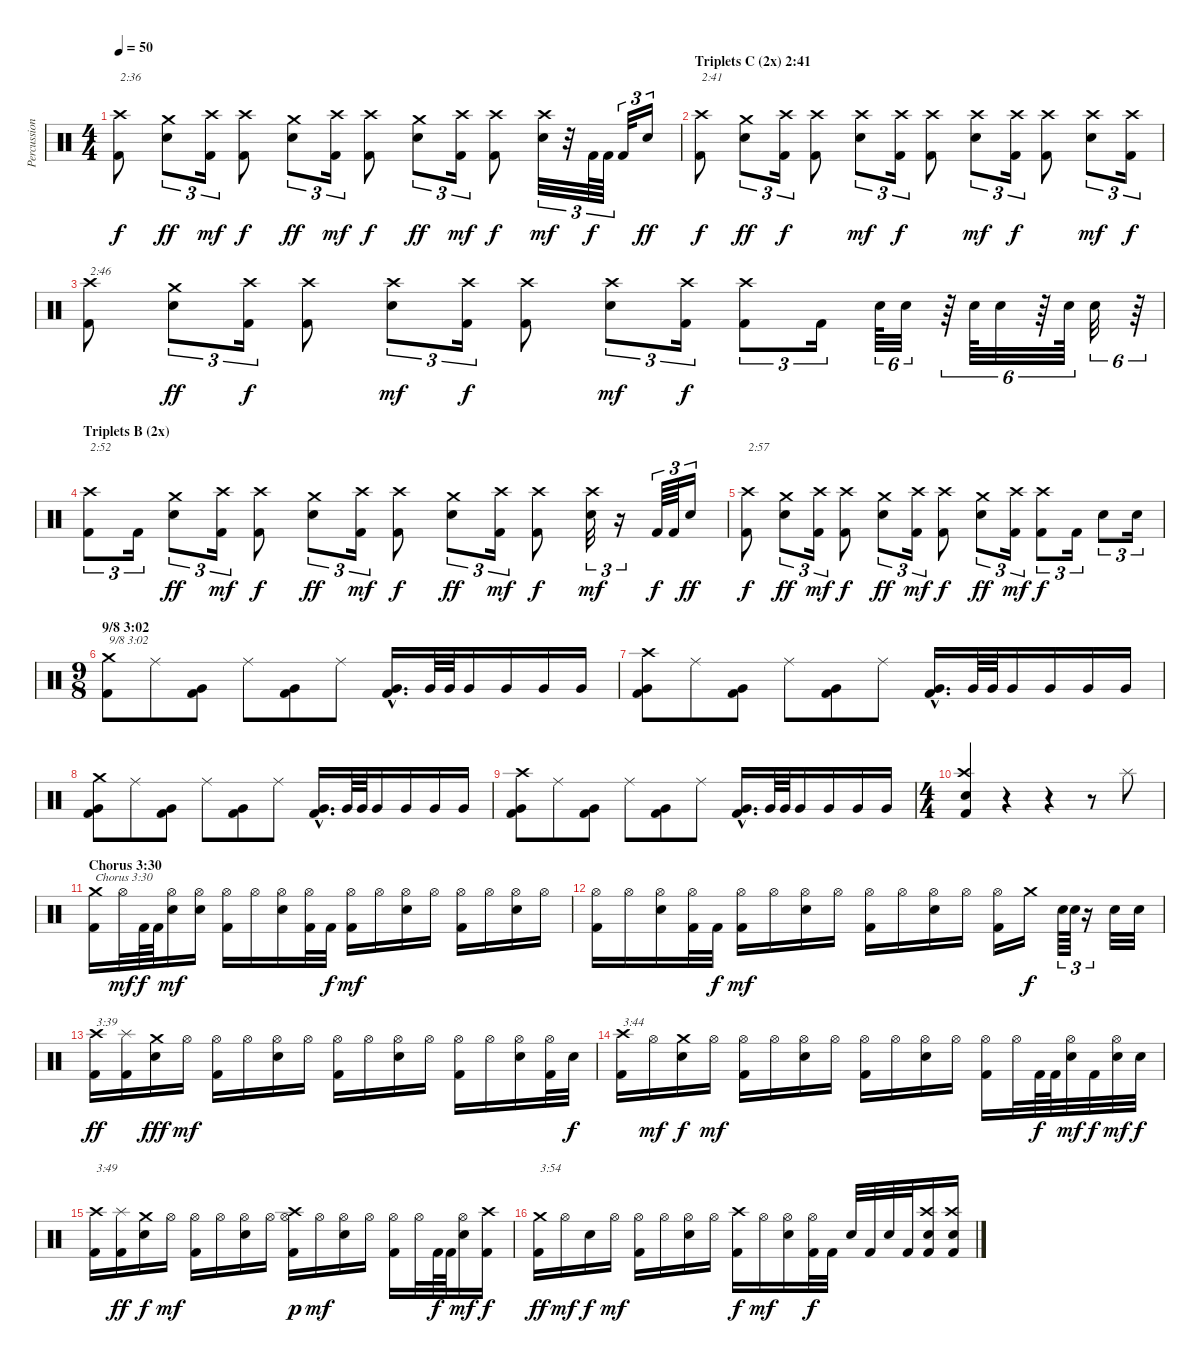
\track ("Percussion" "Percussion") {instrument percussion}
\staff {score}
\articulation defaults
\ts (4 4)
\tempo 50
\clef neutral
\ks c
("Kick (hit) 2" "Crash high (hit)").8{txt "2:36" dy f} ("Electric Snare (hit)" "Crash medium (hit)").8{tu (3 2) dy ff} ("Kick (hit) 2" "Crash high (hit)").16{tu (3 2) dy mf} ("Kick (hit) 2" "Crash high (hit)").8{dy f} ("Electric Snare (hit)" "Crash medium (hit)").8{tu (3 2) dy ff} ("Kick (hit) 2" "Crash high (hit)").16{tu (3 2) dy mf} ("Kick (hit) 2" "Crash high (hit)").8{dy f} ("Electric Snare (hit)" "Crash medium (hit)").8{tu (3 2) dy ff} ("Kick (hit) 2" "Crash high (hit)").16{tu (3 2) dy mf} ("Kick (hit) 2" "Crash high (hit)").8{dy f} ("Electric Snare (hit)" "Crash high (hit)").32{tu (3 2) dy mf} r.32{tu (3 2)} "Kick (hit) 2".64{tu (3 2) dy f} "Kick (hit) 2".64{tu (3 2)} "Kick (hit) 2".32{tu (3 2)} "Electric Snare (hit)".16{tu (3 2) dy ff} |
\section ("" "Triplets C (2x) 2:41")
("Kick (hit) 2" "Crash high (hit)").8{txt "2:41" dy f} ("Electric Snare (hit)" "Crash medium (hit)").8{tu (3 2) dy ff} ("Kick (hit) 2" "Crash high (hit)").16{tu (3 2) dy f} ("Kick (hit) 2" "Crash high (hit)").8 ("Electric Snare (hit)" "Crash high (hit)").8{tu (3 2) dy mf} ("Kick (hit) 2" "Crash high (hit)").16{tu (3 2) dy f} ("Kick (hit) 2" "Crash high (hit)").8 ("Electric Snare (hit)" "Crash high (hit)").8{tu (3 2) dy mf} ("Kick (hit) 2" "Crash high (hit)").16{tu (3 2) dy f} ("Kick (hit) 2" "Crash high (hit)").8 ("Electric Snare (hit)" "Crash high (hit)").8{tu (3 2) dy mf} ("Kick (hit) 2" "Crash high (hit)").16{tu (3 2) dy f} |
("Kick (hit) 2" "Crash high (hit)").8{txt "2:46"} ("Electric Snare (hit)" "Crash medium (hit)").8{tu (3 2) dy ff} ("Kick (hit) 2" "Crash high (hit)").16{tu (3 2) dy f} ("Kick (hit) 2" "Crash high (hit)").8 ("Electric Snare (hit)" "Crash high (hit)").8{tu (3 2) dy mf} ("Kick (hit) 2" "Crash high (hit)").16{tu (3 2) dy f} ("Kick (hit) 2" "Crash high (hit)").8 ("Electric Snare (hit)" "Crash high (hit)").8{tu (3 2) dy mf} ("Kick (hit) 2" "Crash high (hit)").16{tu (3 2) dy f} ("Kick (hit) 2" "Crash high (hit)").8{tu (3 2)} "Kick (hit) 2".16{tu (3 2)} "Electric Snare (hit)".64{tu (6 4)} "Electric Snare (hit)".32{tu (6 4)} r.64{tu (6 4)} "Electric Snare (hit)".64{tu (6 4)} "Electric Snare (hit)".32{tu (6 4)} r.64{tu (6 4)} "Electric Snare (hit)".64{tu (6 4)} "Electric Snare (hit)".32{tu (6 4)} r.64{tu (6 4)} |
\section ("" "Triplets B (2x)")
("Kick (hit) 2" "Crash high (hit)").8{tu (3 2) txt "2:52"} "Kick (hit) 2".16{tu (3 2)} ("Electric Snare (hit)" "Crash medium (hit)").8{tu (3 2) dy ff} ("Kick (hit) 2" "Crash high (hit)").16{tu (3 2) dy mf} ("Kick (hit) 2" "Crash high (hit)").8{dy f} ("Electric Snare (hit)" "Crash medium (hit)").8{tu (3 2) dy ff} ("Kick (hit) 2" "Crash high (hit)").16{tu (3 2) dy mf} ("Kick (hit) 2" "Crash high (hit)").8{dy f} ("Electric Snare (hit)" "Crash medium (hit)").8{tu (3 2) dy ff} ("Kick (hit) 2" "Crash high (hit)").16{tu (3 2) dy mf} ("Kick (hit) 2" "Crash high (hit)").8{dy f} ("Electric Snare (hit)" "Crash high (hit)").32{tu (3 2) dy mf} r.16{tu (3 2)} "Kick (hit) 2".64{tu (3 2) dy f} "Kick (hit) 2".64{tu (3 2)} "Electric Snare (hit)".16{tu (3 2) dy ff} |
("Kick (hit) 2" "Crash high (hit)").8{txt "2:57" dy f} ("Electric Snare (hit)" "Crash medium (hit)").8{tu (3 2) dy ff} ("Kick (hit) 2" "Crash high (hit)").16{tu (3 2) dy mf} ("Kick (hit) 2" "Crash high (hit)").8{dy f} ("Electric Snare (hit)" "Crash medium (hit)").8{tu (3 2) dy ff} ("Kick (hit) 2" "Crash high (hit)").16{tu (3 2) dy mf} ("Kick (hit) 2" "Crash high (hit)").8{dy f} ("Electric Snare (hit)" "Crash medium (hit)").8{tu (3 2) dy ff} ("Kick (hit) 2" "Crash high (hit)").16{tu (3 2) dy mf} ("Kick (hit) 2" "Crash high (hit)").8{tu (3 2) dy f} "Kick (hit) 2".16{tu (3 2)} "Electric Snare (hit)".8{tu (3 2)} "Electric Snare (hit)".16{tu (3 2)} |
\ts (9 8)
\section ("" "9/8 3:02")
("Kick (hit) 2" "Crash medium (hit)").8{txt "9/8 3:02"} "Ride (middle)".8 ("Kick (hit) 2" "Very Low Tom (hit)").8 "Ride (middle)".8 ("Kick (hit) 2" "Very Low Tom (hit)").8 "Ride (middle)".8 ("Kick (hit) 2"{hac} "Very Low Tom (hit)"{hac}).16{d} "Very Low Tom (hit)".64 "Very Low Tom (hit)".64 "Very Low Tom (hit)".16 "Very Low Tom (hit)".16 "Very Low Tom (hit)".16 "Very Low Tom (hit)".16 |
("Kick (hit) 2" "Very Low Tom (hit)" "Crash high (hit)").8 "Ride (middle)".8 ("Kick (hit) 2" "Very Low Tom (hit)").8 "Ride (middle)".8 ("Kick (hit) 2" "Very Low Tom (hit)").8 "Ride (middle)".8 ("Kick (hit) 2"{hac} "Very Low Tom (hit)"{hac}).16{d} "Very Low Tom (hit)".64 "Very Low Tom (hit)".64 "Very Low Tom (hit)".16 "Very Low Tom (hit)".16 "Very Low Tom (hit)".16 "Very Low Tom (hit)".16 |
("Kick (hit) 2" "Very Low Tom (hit)" "Crash medium (hit)").8 "Ride (middle)".8 ("Kick (hit) 2" "Very Low Tom (hit)").8 "Ride (middle)".8 ("Kick (hit) 2" "Very Low Tom (hit)").8 "Ride (middle)".8 ("Kick (hit) 2"{hac} "Very Low Tom (hit)"{hac}).16{d} "Very Low Tom (hit)".64 "Very Low Tom (hit)".64 "Very Low Tom (hit)".16 "Very Low Tom (hit)".16 "Very Low Tom (hit)".16 "Very Low Tom (hit)".16 |
("Kick (hit) 2" "Very Low Tom (hit)" "Crash high (hit)").8 "Ride (middle)".8 ("Kick (hit) 2" "Very Low Tom (hit)").8 "Ride (middle)".8 ("Kick (hit) 2" "Very Low Tom (hit)").8 "Ride (middle)".8 ("Kick (hit) 2"{hac} "Very Low Tom (hit)"{hac}).16{d} "Very Low Tom (hit)".64 "Very Low Tom (hit)".64 "Very Low Tom (hit)".16 "Very Low Tom (hit)".16 "Very Low Tom (hit)".16 "Very Low Tom (hit)".16 |
\ts (4 4)
("Kick (hit) 2" "Electric Snare (hit)" "Crash high (hit)").4 r.4 r.4 r.8 "Splash (hit)".8 |
\section ("" "Chorus 3:30")
("Kick (hit) 2" "Crash medium (hit)").16{txt "Chorus 3:30"} "Hi-Hat (open)".32{dy mf} "Kick (hit) 2".64{dy f} "Kick (hit) 2".64 ("Electric Snare (hit)" "Hi-Hat (open)").16{dy mf} ("Electric Snare (hit)" "Hi-Hat (open)").16 ("Kick (hit) 2" "Hi-Hat (open)").16 "Hi-Hat (open)".16 ("Electric Snare (hit)" "Hi-Hat (open)").16 ("Kick (hit) 2" "Hi-Hat (open)").32 "Kick (hit) 2".32{dy f} ("Kick (hit) 2" "Hi-Hat (open)").16{dy mf} "Hi-Hat (open)".16 ("Electric Snare (hit)" "Hi-Hat (open)").16 "Hi-Hat (open)".16 ("Kick (hit) 2" "Hi-Hat (open)").16 "Hi-Hat (open)".16 ("Electric Snare (hit)" "Hi-Hat (open)").16 "Hi-Hat (open)".16 |
("Kick (hit) 2" "Hi-Hat (open)").16 "Hi-Hat (open)".16 ("Electric Snare (hit)" "Hi-Hat (open)").16 ("Kick (hit) 2" "Hi-Hat (open)").32 "Kick (hit) 2".32{dy f} ("Kick (hit) 2" "Hi-Hat (open)").16{dy mf} "Hi-Hat (open)".16 ("Electric Snare (hit)" "Hi-Hat (open)").16 "Hi-Hat (open)".16 ("Kick (hit) 2" "Hi-Hat (open)").16 "Hi-Hat (open)".16 ("Electric Snare (hit)" "Hi-Hat (open)").16 "Hi-Hat (open)".16 ("Kick (hit) 2" "Hi-Hat (open)").16 "Crash medium (hit)".16{dy f} "Electric Snare (hit)".64{tu (3 2)} "Electric Snare (hit)".64{tu (3 2)} r.16{tu (3 2)} "Electric Snare (hit)".32 "Electric Snare (hit)".32 |
("Kick (hit) 2" "Crash high (hit)").16{txt "3:39" dy ff} ("Kick (hit) 2" "Splash (hit)").16 ("Electric Snare (hit)" "Crash medium (hit)").16{dy fff} "Hi-Hat (open)".16{dy mf} ("Kick (hit) 2" "Hi-Hat (open)").16 "Hi-Hat (open)".16 ("Electric Snare (hit)" "Hi-Hat (open)").16 "Hi-Hat (open)".16 ("Kick (hit) 2" "Hi-Hat (open)").16 "Hi-Hat (open)".16 ("Electric Snare (hit)" "Hi-Hat (open)").16 "Hi-Hat (open)".16 ("Kick (hit) 2" "Hi-Hat (open)").16 "Hi-Hat (open)".16 ("Electric Snare (hit)" "Hi-Hat (open)").16 ("Kick (hit) 2" "Hi-Hat (open)").32 "Electric Snare (hit)".32{dy f} |
("Kick (hit) 2" "Crash high (hit)").16{txt "3:44"} "Hi-Hat (open)".16{dy mf} ("Electric Snare (hit)" "Crash medium (hit)").16{dy f} "Hi-Hat (open)".16{dy mf} ("Kick (hit) 2" "Hi-Hat (open)").16 "Hi-Hat (open)".16 ("Electric Snare (hit)" "Hi-Hat (open)").16 "Hi-Hat (open)".16 ("Kick (hit) 2" "Hi-Hat (open)").16 "Hi-Hat (open)".16 ("Electric Snare (hit)" "Hi-Hat (open)").16 "Hi-Hat (open)".16 ("Kick (hit) 2" "Hi-Hat (open)").16 "Hi-Hat (open)".32 "Kick (hit) 2".64{dy f} "Kick (hit) 2".64 ("Electric Snare (hit)" "Hi-Hat (open)").32{dy mf} "Kick (hit) 2".32{dy f} ("Electric Snare (hit)" "Hi-Hat (open)").32{dy mf} "Electric Snare (hit)".32{dy f} |
("Kick (hit) 2" "Crash high (hit)").16{txt "3:49"} ("Kick (hit) 2" "Splash (hit)").16{dy ff} ("Electric Snare (hit)" "Crash medium (hit)").16{dy f} "Hi-Hat (open)".16{dy mf} ("Kick (hit) 2" "Hi-Hat (open)").16 "Hi-Hat (open)".16 ("Electric Snare (hit)" "Hi-Hat (open)").16 "Hi-Hat (open)".16 ("Kick (hit) 2" "Hi-Hat (open)" "Crash high (hit)").16{dy p} "Hi-Hat (open)".16{dy mf} ("Electric Snare (hit)" "Hi-Hat (open)").16 "Hi-Hat (open)".16 ("Kick (hit) 2" "Hi-Hat (open)").16 "Hi-Hat (open)".32 "Kick (hit) 2".64{dy f} "Kick (hit) 2".64 ("Electric Snare (hit)" "Hi-Hat (open)").16{dy mf} ("Kick (hit) 2" "Crash high (hit)").16{dy f} |
("Kick (hit) 2" "Crash medium (hit)").16{txt "3:54" dy ff} "Hi-Hat (open)".16{dy mf} "Electric Snare (hit)".16{dy f} "Hi-Hat (open)".16{dy mf} ("Kick (hit) 2" "Hi-Hat (open)").16 "Hi-Hat (open)".16 ("Electric Snare (hit)" "Hi-Hat (open)").16 "Hi-Hat (open)".16 ("Kick (hit) 2" "Crash high (hit)").16{dy f} "Hi-Hat (open)".16{dy mf} ("Electric Snare (hit)" "Hi-Hat (open)").16 ("Kick (hit) 2" "Hi-Hat (open)").32{dy f} "Kick (hit) 2".32 "Electric Snare (hit)".32 "Kick (hit) 2".32 "Electric Snare (hit)".32 "Kick (hit) 2".32 ("Kick (hit) 2" "Electric Snare (hit)" "Crash high (hit)").16 ("Kick (hit) 2" "Electric Snare (hit)" "Crash high (hit)").16
